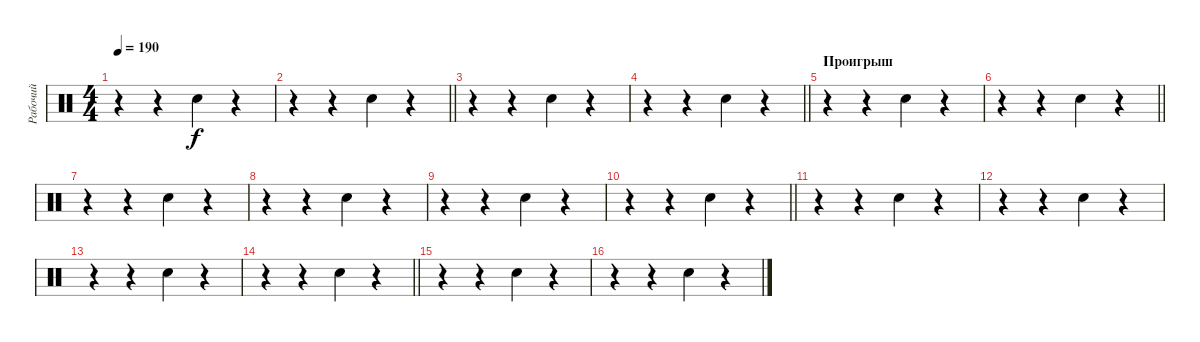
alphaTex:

\track ("Рабочий" "Рабочий") {instrument percussion}
\staff {score}
\articulation defaults
\ts (4 4)
\tempo 190
\clef neutral
\ks c
r.4{dy f} r.4 "Snare (hit) 2".4 r.4 |
\barLineRight lightlight
r.4 r.4 "Snare (hit) 2".4 r.4 |
r.4 r.4 "Snare (hit) 2".4 r.4 |
\barLineRight lightlight
r.4 r.4 "Snare (hit) 2".4 r.4 |
\section ("" "Проигрыш")
r.4 r.4 "Snare (hit) 2".4 r.4 |
\barLineRight lightlight
r.4 r.4 "Snare (hit) 2".4 r.4 |
r.4 r.4 "Snare (hit) 2".4 r.4 |
r.4 r.4 "Snare (hit) 2".4 r.4 |
r.4 r.4 "Snare (hit) 2".4 r.4 |
\barLineRight lightlight
r.4 r.4 "Snare (hit) 2".4 r.4 |
r.4 r.4 "Snare (hit) 2".4 r.4 |
r.4 r.4 "Snare (hit) 2".4 r.4 |
r.4 r.4 "Snare (hit) 2".4 r.4 |
\barLineRight lightlight
r.4 r.4 "Snare (hit) 2".4 r.4 |
r.4 r.4 "Snare (hit) 2".4 r.4 |
r.4 r.4 "Snare (hit) 2".4 r.4
